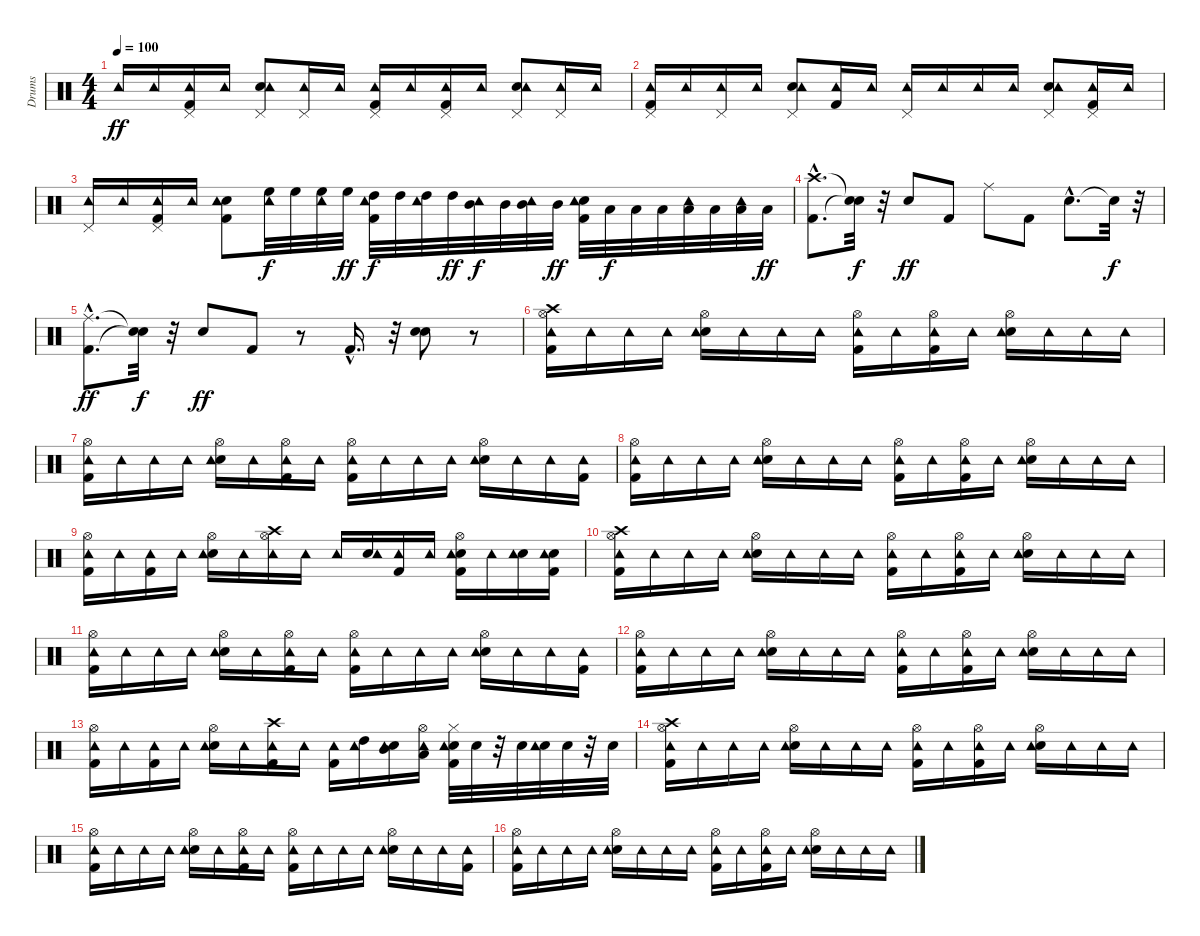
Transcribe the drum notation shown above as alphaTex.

\track ("Drums" "Drums") {instrument percussion}
\staff {score}
\articulation defaults
\ts (4 4)
\tempo 100
\clef neutral
\ks c "Tambourine (hit)".16{dy ff} "Tambourine (hit)".16
("Kick (hit) 2" "Pedal Hi-Hat (hit)" "Tambourine (hit)").16 "Tambourine (hit)".16 ("Snare (hit) 2" "Pedal Hi-Hat (hit)" "Tambourine (hit)").8 ("Pedal Hi-Hat (hit)" "Tambourine (hit)").16 "Tambourine (hit)".16 ("Kick (hit) 2" "Pedal Hi-Hat (hit)" "Tambourine (hit)").16 "Tambourine (hit)".16 ("Kick (hit) 2" "Pedal Hi-Hat (hit)" "Tambourine (hit)").16 "Tambourine (hit)".16 ("Snare (hit) 2" "Pedal Hi-Hat (hit)" "Tambourine (hit)").8 ("Pedal Hi-Hat (hit)" "Tambourine (hit)").16 "Tambourine (hit)".16 |
("Kick (hit) 2" "Pedal Hi-Hat (hit)" "Tambourine (hit)").16 "Tambourine (hit)".16 ("Pedal Hi-Hat (hit)" "Tambourine (hit)").16 "Tambourine (hit)".16 ("Snare (hit) 2" "Pedal Hi-Hat (hit)" "Tambourine (hit)").8 ("Kick (hit) 2" "Tambourine (hit)").16 "Tambourine (hit)".16 ("Pedal Hi-Hat (hit)" "Tambourine (hit)").16 "Tambourine (hit)".16 "Tambourine (hit)".16 "Tambourine (hit)".16 ("Snare (hit) 2" "Pedal Hi-Hat (hit)" "Tambourine (hit)").8 ("Kick (hit) 2" "Pedal Hi-Hat (hit)" "Tambourine (hit)").16 "Tambourine (hit)".16 |
("Pedal Hi-Hat (hit)" "Tambourine (hit)").16 "Tambourine (hit)".16 ("Kick (hit) 2" "Pedal Hi-Hat (hit)" "Tambourine (hit)").16 "Tambourine (hit)".16 ("Kick (hit) 2" "Snare (hit) 2" "Tambourine (hit)").8 ("High Floor Tom (hit)" "Tambourine (hit)").32{dy f} "High Floor Tom (hit)".32 ("High Floor Tom (hit)" "Tambourine (hit)").32 "High Floor Tom (hit)".32{dy ff} ("Kick (hit) 2" "High Tom (hit)" "Tambourine (hit)").32{dy f} "High Tom (hit)".32 ("High Tom (hit)" "Tambourine (hit)").32 "High Tom (hit)".32{dy ff} ("Mid Tom (hit)" "Tambourine (hit)").32{dy f} "Mid Tom (hit)".32 ("Mid Tom (hit)" "Tambourine (hit)").32 "Mid Tom (hit)".32{dy ff} ("Kick (hit) 2" "Snare (hit) 2" "Tambourine (hit)").32 "Low Tom (hit)".32{dy f} "Low Tom (hit)".32 "Low Tom (hit)".32 ("Low Tom (hit)" "Tambourine (hit)").32 "Low Tom (hit)".32 ("Low Tom (hit)" "Tambourine (hit)").32 "Low Tom (hit)".32{dy ff} |
("Kick (hit) 2"{hac} "Crash high (hit)"{hac}).8{d} ("Snare (hit)"{t} "Snare (hit)"{t}).32{dy f} r.32 "Snare (hit) 2".8{dy ff} "Kick (hit) 2".8 "Ride (middle)".8 "Kick (hit) 2".8 "Snare (hit) 2"{hac}.8{d} "Snare (hit)"{t}.32{dy f} r.32 |
("Kick (hit) 2"{hac} "Ride (middle)"{hac}).8{d dy ff} ("Snare (hit)"{t} "Snare (hit)"{t}).32{dy f} r.32 "Snare (hit) 2".8{dy ff} "Kick (hit) 2".8 r.8 "Kick (hit) 2"{hac}.16{d} r.32 ("Snare (hit) 2" "Snare (hit) 2").8 r.8 |
("Kick (hit) 2" "Hi-Hat (open)" "Crash high (hit)" "Tambourine (hit)").16 "Tambourine (hit)".16 "Tambourine (hit)".16 "Tambourine (hit)".16 ("Snare (hit) 2" "Hi-Hat (open)" "Tambourine (hit)").16 "Tambourine (hit)".16 "Tambourine (hit)".16 "Tambourine (hit)".16 ("Kick (hit) 2" "Hi-Hat (open)" "Tambourine (hit)").16 "Tambourine (hit)".16 ("Kick (hit) 2" "Hi-Hat (open)" "Tambourine (hit)").16 "Tambourine (hit)".16 ("Snare (hit) 2" "Hi-Hat (open)" "Tambourine (hit)").16 "Tambourine (hit)".16 "Tambourine (hit)".16 "Tambourine (hit)".16 |
("Kick (hit) 2" "Hi-Hat (open)" "Tambourine (hit)").16 "Tambourine (hit)".16 "Tambourine (hit)".16 "Tambourine (hit)".16 ("Snare (hit) 2" "Hi-Hat (open)" "Tambourine (hit)").16 "Tambourine (hit)".16 ("Kick (hit) 2" "Hi-Hat (open)" "Tambourine (hit)").16 "Tambourine (hit)".16 ("Kick (hit) 2" "Hi-Hat (open)" "Tambourine (hit)").16 "Tambourine (hit)".16 "Tambourine (hit)".16 "Tambourine (hit)".16 ("Snare (hit) 2" "Hi-Hat (open)" "Tambourine (hit)").16 "Tambourine (hit)".16 "Tambourine (hit)".16 ("Kick (hit) 2" "Tambourine (hit)").16 |
("Kick (hit) 2" "Hi-Hat (open)" "Tambourine (hit)").16 "Tambourine (hit)".16 "Tambourine (hit)".16 "Tambourine (hit)".16 ("Snare (hit) 2" "Hi-Hat (open)" "Tambourine (hit)").16 "Tambourine (hit)".16 "Tambourine (hit)".16 "Tambourine (hit)".16 ("Kick (hit) 2" "Hi-Hat (open)" "Tambourine (hit)").16 "Tambourine (hit)".16 ("Kick (hit) 2" "Hi-Hat (open)" "Tambourine (hit)").16 "Tambourine (hit)".16 ("Snare (hit) 2" "Hi-Hat (open)" "Tambourine (hit)").16 "Tambourine (hit)".16 "Tambourine (hit)".16 "Tambourine (hit)".16 |
("Kick (hit) 2" "Hi-Hat (open)" "Tambourine (hit)").16 "Tambourine (hit)".16 ("Kick (hit) 2" "Tambourine (hit)").16 "Tambourine (hit)".16 ("Snare (hit) 2" "Hi-Hat (open)" "Tambourine (hit)").16 "Tambourine (hit)".16 ("Hi-Hat (open)" "Crash high (hit)" "Tambourine (hit)").16 "Tambourine (hit)".16 "Tambourine (hit)".16 ("Snare (hit) 2" "Tambourine (hit)").16 ("Kick (hit) 2" "Tambourine (hit)").16 "Tambourine (hit)".16 ("Kick (hit) 2" "Snare (hit) 2" "Hi-Hat (open)" "Tambourine (hit)").16 "Tambourine (hit)".16 ("Snare (hit) 2" "Tambourine (hit)").16 ("Kick (hit) 2" "Snare (hit) 2" "Tambourine (hit)").16 |
("Kick (hit) 2" "Hi-Hat (open)" "Crash high (hit)" "Tambourine (hit)").16 "Tambourine (hit)".16 "Tambourine (hit)".16 "Tambourine (hit)".16 ("Snare (hit) 2" "Hi-Hat (open)" "Tambourine (hit)").16 "Tambourine (hit)".16 "Tambourine (hit)".16 "Tambourine (hit)".16 ("Kick (hit) 2" "Hi-Hat (open)" "Tambourine (hit)").16 "Tambourine (hit)".16 ("Kick (hit) 2" "Hi-Hat (open)" "Tambourine (hit)").16 "Tambourine (hit)".16 ("Snare (hit) 2" "Hi-Hat (open)" "Tambourine (hit)").16 "Tambourine (hit)".16 "Tambourine (hit)".16 "Tambourine (hit)".16 |
("Kick (hit) 2" "Hi-Hat (open)" "Tambourine (hit)").16 "Tambourine (hit)".16 "Tambourine (hit)".16 "Tambourine (hit)".16 ("Snare (hit) 2" "Hi-Hat (open)" "Tambourine (hit)").16 "Tambourine (hit)".16 ("Kick (hit) 2" "Hi-Hat (open)" "Tambourine (hit)").16 "Tambourine (hit)".16 ("Kick (hit) 2" "Hi-Hat (open)" "Tambourine (hit)").16 "Tambourine (hit)".16 "Tambourine (hit)".16 "Tambourine (hit)".16 ("Snare (hit) 2" "Hi-Hat (open)" "Tambourine (hit)").16 "Tambourine (hit)".16 "Tambourine (hit)".16 ("Kick (hit) 2" "Tambourine (hit)").16 |
("Kick (hit) 2" "Hi-Hat (open)" "Tambourine (hit)").16 "Tambourine (hit)".16 "Tambourine (hit)".16 "Tambourine (hit)".16 ("Snare (hit) 2" "Hi-Hat (open)" "Tambourine (hit)").16 "Tambourine (hit)".16 "Tambourine (hit)".16 "Tambourine (hit)".16 ("Kick (hit) 2" "Hi-Hat (open)" "Tambourine (hit)").16 "Tambourine (hit)".16 ("Kick (hit) 2" "Hi-Hat (open)" "Tambourine (hit)").16 "Tambourine (hit)".16 ("Snare (hit) 2" "Hi-Hat (open)" "Tambourine (hit)").16 "Tambourine (hit)".16 "Tambourine (hit)".16 "Tambourine (hit)".16 |
("Kick (hit) 2" "Hi-Hat (open)" "Tambourine (hit)").16 "Tambourine (hit)".16 ("Kick (hit) 2" "Tambourine (hit)").16 "Tambourine (hit)".16 ("Snare (hit) 2" "Hi-Hat (open)" "Tambourine (hit)").16 "Tambourine (hit)".16 ("Kick (hit) 2" "Crash high (hit)" "Tambourine (hit)").16 "Tambourine (hit)".16 ("Kick (hit) 2" "Tambourine (hit)").16 ("High Tom (hit)" "Tambourine (hit)").16 ("Snare (hit) 2" "Mid Tom (hit)" "Tambourine (hit)").16 ("Low Tom (hit)" "Hi-Hat (open)" "Tambourine (hit)").16 ("Kick (hit) 2" "Snare (hit) 2" "Hi-Hat (closed)" "Tambourine (hit)").32 "Snare (hit) 2".32 r.32 "Snare (hit) 2".32 ("Snare (hit) 2" "Tambourine (hit)").32 "Snare (hit) 2".32 r.32 "Snare (hit) 2".32 |
("Kick (hit) 2" "Hi-Hat (open)" "Crash high (hit)" "Tambourine (hit)").16 "Tambourine (hit)".16 "Tambourine (hit)".16 "Tambourine (hit)".16 ("Snare (hit) 2" "Hi-Hat (open)" "Tambourine (hit)").16 "Tambourine (hit)".16 "Tambourine (hit)".16 "Tambourine (hit)".16 ("Kick (hit) 2" "Hi-Hat (open)" "Tambourine (hit)").16 "Tambourine (hit)".16 ("Kick (hit) 2" "Hi-Hat (open)" "Tambourine (hit)").16 "Tambourine (hit)".16 ("Snare (hit) 2" "Hi-Hat (open)" "Tambourine (hit)").16 "Tambourine (hit)".16 "Tambourine (hit)".16 "Tambourine (hit)".16 |
("Kick (hit) 2" "Hi-Hat (open)" "Tambourine (hit)").16 "Tambourine (hit)".16 "Tambourine (hit)".16 "Tambourine (hit)".16 ("Snare (hit) 2" "Hi-Hat (open)" "Tambourine (hit)").16 "Tambourine (hit)".16 ("Kick (hit) 2" "Hi-Hat (open)" "Tambourine (hit)").16 "Tambourine (hit)".16 ("Kick (hit) 2" "Hi-Hat (open)" "Tambourine (hit)").16 "Tambourine (hit)".16 "Tambourine (hit)".16 "Tambourine (hit)".16 ("Snare (hit) 2" "Hi-Hat (open)" "Tambourine (hit)").16 "Tambourine (hit)".16 "Tambourine (hit)".16 ("Kick (hit) 2" "Tambourine (hit)").16 |
("Kick (hit) 2" "Hi-Hat (open)" "Tambourine (hit)").16 "Tambourine (hit)".16 "Tambourine (hit)".16 "Tambourine (hit)".16 ("Snare (hit) 2" "Hi-Hat (open)" "Tambourine (hit)").16 "Tambourine (hit)".16 "Tambourine (hit)".16 "Tambourine (hit)".16 ("Kick (hit) 2" "Hi-Hat (open)" "Tambourine (hit)").16 "Tambourine (hit)".16 ("Kick (hit) 2" "Hi-Hat (open)" "Tambourine (hit)").16 "Tambourine (hit)".16 ("Snare (hit) 2" "Hi-Hat (open)" "Tambourine (hit)").16 "Tambourine (hit)".16 "Tambourine (hit)".16 "Tambourine (hit)".16
